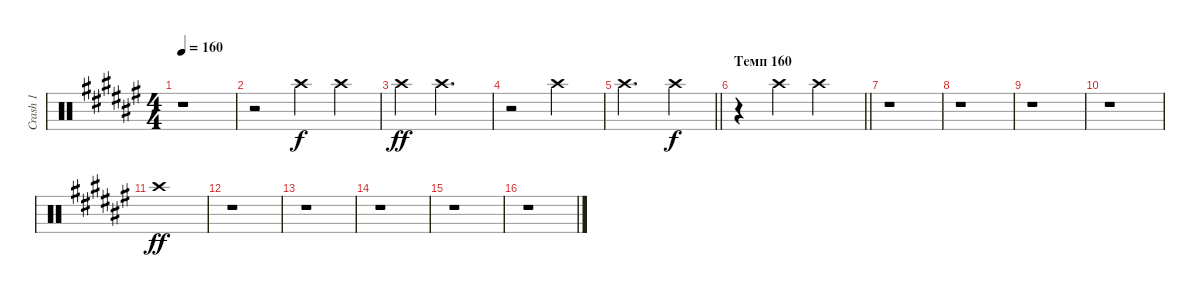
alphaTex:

\track ("Crash 1" "Crash 1") {instrument percussion}
\staff {score}
\articulation defaults
\ts (4 4)
\tempo 160
\clef neutral
\ks d#minor
r.1{dy f} |
r.2 "Crash high (hit)".4 "Crash high (hit)".4 |
"Crash high (hit)".4{dy ff} "Crash high (hit)".2{d} |
r.2 "Crash high (hit)".2 |
\barLineRight lightlight "Crash high (hit)".2{d} "Crash high (hit)".4{dy f}
|
\section ("" "Темп 160")
\barLineRight lightlight
r.4 "Crash high (hit)".4 "Crash high (hit)".2 |
r.1 |
r.1 |
r.1 |
r.1 |
"Crash high (hit)".1{dy ff} |
r.1 |
r.1 |
r.1 |
r.1 |
r.1
